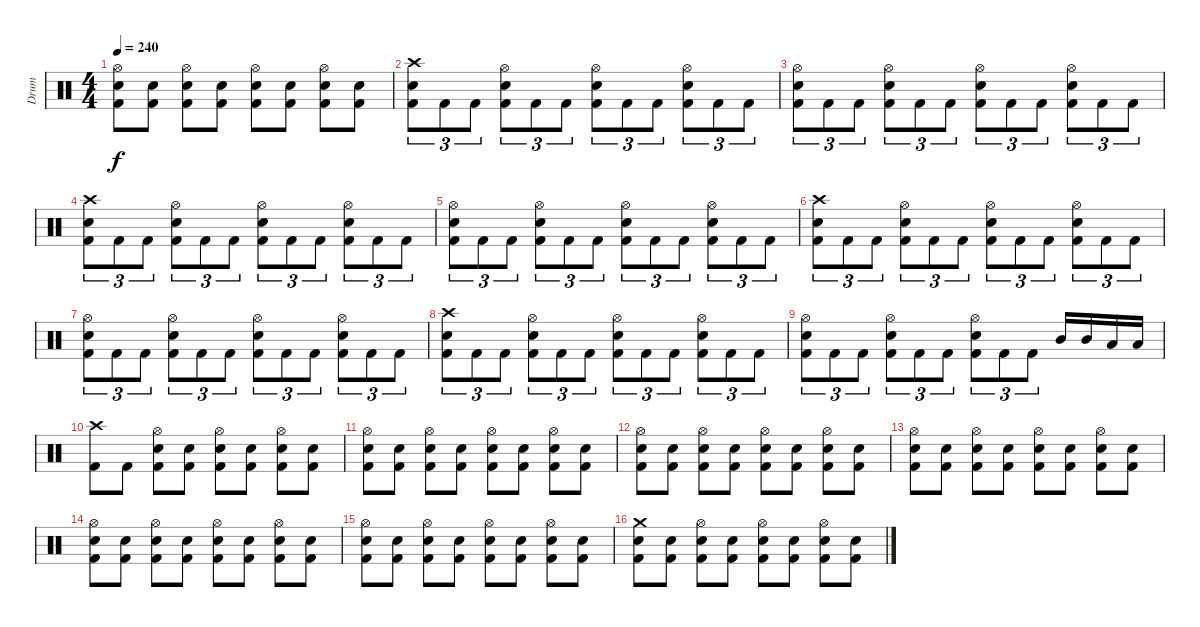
\track ("Drum" "Drum") {instrument percussion}
\staff {score}
\articulation defaults
\ts (4 4)
\tempo 240
\clef neutral
\ks c
("Hi-Hat (open)" "Electric Snare (hit)" "Kick (hit) 2").8{dy f} ("Electric Snare (hit)" "Kick (hit) 2").8 ("Hi-Hat (open)" "Electric Snare (hit)" "Kick (hit) 2").8 ("Electric Snare (hit)" "Kick (hit) 2").8 ("Hi-Hat (open)" "Electric Snare (hit)" "Kick (hit) 2").8 ("Electric Snare (hit)" "Kick (hit) 2").8 ("Hi-Hat (open)" "Electric Snare (hit)" "Kick (hit) 2").8 ("Electric Snare (hit)" "Kick (hit) 2").8 |
("Crash high (hit)" "Electric Snare (hit)" "Kick (hit) 2").8{tu (3 2)} "Kick (hit) 2".8{tu (3 2)} "Kick (hit) 2".8{tu (3 2)} ("Hi-Hat (open)" "Electric Snare (hit)" "Kick (hit) 2").8{tu (3 2)} "Kick (hit) 2".8{tu (3 2)} "Kick (hit) 2".8{tu (3 2)} ("Hi-Hat (open)" "Electric Snare (hit)" "Kick (hit) 2").8{tu (3 2)} "Kick (hit) 2".8{tu (3 2)} "Kick (hit) 2".8{tu (3 2)} ("Hi-Hat (open)" "Electric Snare (hit)" "Kick (hit) 2").8{tu (3 2)} "Kick (hit) 2".8{tu (3 2)} "Kick (hit) 2".8{tu (3 2)} |
("Hi-Hat (open)" "Electric Snare (hit)" "Kick (hit) 2").8{tu (3 2)} "Kick (hit) 2".8{tu (3 2)} "Kick (hit) 2".8{tu (3 2)} ("Hi-Hat (open)" "Electric Snare (hit)" "Kick (hit) 2").8{tu (3 2)} "Kick (hit) 2".8{tu (3 2)} "Kick (hit) 2".8{tu (3 2)} ("Hi-Hat (open)" "Electric Snare (hit)" "Kick (hit) 2").8{tu (3 2)} "Kick (hit) 2".8{tu (3 2)} "Kick (hit) 2".8{tu (3 2)} ("Hi-Hat (open)" "Electric Snare (hit)" "Kick (hit) 2").8{tu (3 2)} "Kick (hit) 2".8{tu (3 2)} "Kick (hit) 2".8{tu (3 2)} |
("Crash high (hit)" "Electric Snare (hit)" "Kick (hit) 2").8{tu (3 2)} "Kick (hit) 2".8{tu (3 2)} "Kick (hit) 2".8{tu (3 2)} ("Hi-Hat (open)" "Electric Snare (hit)" "Kick (hit) 2").8{tu (3 2)} "Kick (hit) 2".8{tu (3 2)} "Kick (hit) 2".8{tu (3 2)} ("Hi-Hat (open)" "Electric Snare (hit)" "Kick (hit) 2").8{tu (3 2)} "Kick (hit) 2".8{tu (3 2)} "Kick (hit) 2".8{tu (3 2)} ("Hi-Hat (open)" "Electric Snare (hit)" "Kick (hit) 2").8{tu (3 2)} "Kick (hit) 2".8{tu (3 2)} "Kick (hit) 2".8{tu (3 2)} |
("Hi-Hat (open)" "Electric Snare (hit)" "Kick (hit) 2").8{tu (3 2)} "Kick (hit) 2".8{tu (3 2)} "Kick (hit) 2".8{tu (3 2)} ("Hi-Hat (open)" "Electric Snare (hit)" "Kick (hit) 2").8{tu (3 2)} "Kick (hit) 2".8{tu (3 2)} "Kick (hit) 2".8{tu (3 2)} ("Hi-Hat (open)" "Electric Snare (hit)" "Kick (hit) 2").8{tu (3 2)} "Kick (hit) 2".8{tu (3 2)} "Kick (hit) 2".8{tu (3 2)} ("Hi-Hat (open)" "Electric Snare (hit)" "Kick (hit) 2").8{tu (3 2)} "Kick (hit) 2".8{tu (3 2)} "Kick (hit) 2".8{tu (3 2)} |
("Crash high (hit)" "Electric Snare (hit)" "Kick (hit) 2").8{tu (3 2)} "Kick (hit) 2".8{tu (3 2)} "Kick (hit) 2".8{tu (3 2)} ("Hi-Hat (open)" "Electric Snare (hit)" "Kick (hit) 2").8{tu (3 2)} "Kick (hit) 2".8{tu (3 2)} "Kick (hit) 2".8{tu (3 2)} ("Hi-Hat (open)" "Electric Snare (hit)" "Kick (hit) 2").8{tu (3 2)} "Kick (hit) 2".8{tu (3 2)} "Kick (hit) 2".8{tu (3 2)} ("Hi-Hat (open)" "Electric Snare (hit)" "Kick (hit) 2").8{tu (3 2)} "Kick (hit) 2".8{tu (3 2)} "Kick (hit) 2".8{tu (3 2)} |
("Hi-Hat (open)" "Electric Snare (hit)" "Kick (hit) 2").8{tu (3 2)} "Kick (hit) 2".8{tu (3 2)} "Kick (hit) 2".8{tu (3 2)} ("Hi-Hat (open)" "Electric Snare (hit)" "Kick (hit) 2").8{tu (3 2)} "Kick (hit) 2".8{tu (3 2)} "Kick (hit) 2".8{tu (3 2)} ("Hi-Hat (open)" "Electric Snare (hit)" "Kick (hit) 2").8{tu (3 2)} "Kick (hit) 2".8{tu (3 2)} "Kick (hit) 2".8{tu (3 2)} ("Hi-Hat (open)" "Electric Snare (hit)" "Kick (hit) 2").8{tu (3 2)} "Kick (hit) 2".8{tu (3 2)} "Kick (hit) 2".8{tu (3 2)} |
("Crash high (hit)" "Electric Snare (hit)" "Kick (hit) 2").8{tu (3 2)} "Kick (hit) 2".8{tu (3 2)} "Kick (hit) 2".8{tu (3 2)} ("Hi-Hat (open)" "Electric Snare (hit)" "Kick (hit) 2").8{tu (3 2)} "Kick (hit) 2".8{tu (3 2)} "Kick (hit) 2".8{tu (3 2)} ("Hi-Hat (open)" "Electric Snare (hit)" "Kick (hit) 2").8{tu (3 2)} "Kick (hit) 2".8{tu (3 2)} "Kick (hit) 2".8{tu (3 2)} ("Hi-Hat (open)" "Electric Snare (hit)" "Kick (hit) 2").8{tu (3 2)} "Kick (hit) 2".8{tu (3 2)} "Kick (hit) 2".8{tu (3 2)} |
("Hi-Hat (open)" "Electric Snare (hit)" "Kick (hit) 2").8{tu (3 2)} "Kick (hit) 2".8{tu (3 2)} "Kick (hit) 2".8{tu (3 2)} ("Hi-Hat (open)" "Electric Snare (hit)" "Kick (hit) 2").8{tu (3 2)} "Kick (hit) 2".8{tu (3 2)} "Kick (hit) 2".8{tu (3 2)} ("Hi-Hat (open)" "Electric Snare (hit)" "Kick (hit) 2").8{tu (3 2)} "Kick (hit) 2".8{tu (3 2)} "Kick (hit) 2".8{tu (3 2)} "Mid Tom (hit)".16 "Mid Tom (hit)".16 "Low Tom (hit)".16 "Low Tom (hit)".16 |
("Crash high (hit)" "Kick (hit) 2").8 "Kick (hit) 2".8 ("Hi-Hat (open)" "Electric Snare (hit)" "Kick (hit) 2").8 ("Electric Snare (hit)" "Kick (hit) 2").8 ("Hi-Hat (open)" "Electric Snare (hit)" "Kick (hit) 2").8 ("Electric Snare (hit)" "Kick (hit) 2").8 ("Hi-Hat (open)" "Electric Snare (hit)" "Kick (hit) 2").8 ("Electric Snare (hit)" "Kick (hit) 2").8 |
("Hi-Hat (open)" "Electric Snare (hit)" "Kick (hit) 2").8 ("Electric Snare (hit)" "Kick (hit) 2").8 ("Hi-Hat (open)" "Electric Snare (hit)" "Kick (hit) 2").8 ("Electric Snare (hit)" "Kick (hit) 2").8 ("Hi-Hat (open)" "Electric Snare (hit)" "Kick (hit) 2").8 ("Electric Snare (hit)" "Kick (hit) 2").8 ("Hi-Hat (open)" "Electric Snare (hit)" "Kick (hit) 2").8 ("Electric Snare (hit)" "Kick (hit) 2").8 |
("Hi-Hat (open)" "Electric Snare (hit)" "Kick (hit) 2").8 ("Electric Snare (hit)" "Kick (hit) 2").8 ("Hi-Hat (open)" "Electric Snare (hit)" "Kick (hit) 2").8 ("Electric Snare (hit)" "Kick (hit) 2").8 ("Hi-Hat (open)" "Electric Snare (hit)" "Kick (hit) 2").8 ("Electric Snare (hit)" "Kick (hit) 2").8 ("Hi-Hat (open)" "Electric Snare (hit)" "Kick (hit) 2").8 ("Electric Snare (hit)" "Kick (hit) 2").8 |
("Hi-Hat (open)" "Electric Snare (hit)" "Kick (hit) 2").8 ("Electric Snare (hit)" "Kick (hit) 2").8 ("Hi-Hat (open)" "Electric Snare (hit)" "Kick (hit) 2").8 ("Electric Snare (hit)" "Kick (hit) 2").8 ("Hi-Hat (open)" "Electric Snare (hit)" "Kick (hit) 2").8 ("Electric Snare (hit)" "Kick (hit) 2").8 ("Hi-Hat (open)" "Electric Snare (hit)" "Kick (hit) 2").8 ("Electric Snare (hit)" "Kick (hit) 2").8 |
("Hi-Hat (open)" "Electric Snare (hit)" "Kick (hit) 2").8 ("Electric Snare (hit)" "Kick (hit) 2").8 ("Hi-Hat (open)" "Electric Snare (hit)" "Kick (hit) 2").8 ("Electric Snare (hit)" "Kick (hit) 2").8 ("Hi-Hat (open)" "Electric Snare (hit)" "Kick (hit) 2").8 ("Electric Snare (hit)" "Kick (hit) 2").8 ("Hi-Hat (open)" "Electric Snare (hit)" "Kick (hit) 2").8 ("Electric Snare (hit)" "Kick (hit) 2").8 |
("Hi-Hat (open)" "Electric Snare (hit)" "Kick (hit) 2").8 ("Electric Snare (hit)" "Kick (hit) 2").8 ("Hi-Hat (open)" "Electric Snare (hit)" "Kick (hit) 2").8 ("Electric Snare (hit)" "Kick (hit) 2").8 ("Hi-Hat (open)" "Electric Snare (hit)" "Kick (hit) 2").8 ("Electric Snare (hit)" "Kick (hit) 2").8 ("Hi-Hat (open)" "Electric Snare (hit)" "Kick (hit) 2").8 ("Electric Snare (hit)" "Kick (hit) 2").8 |
("Crash medium (hit)" "Electric Snare (hit)" "Kick (hit) 2").8 ("Electric Snare (hit)" "Kick (hit) 2").8 ("Hi-Hat (open)" "Electric Snare (hit)" "Kick (hit) 2").8 ("Electric Snare (hit)" "Kick (hit) 2").8 ("Hi-Hat (open)" "Electric Snare (hit)" "Kick (hit) 2").8 ("Electric Snare (hit)" "Kick (hit) 2").8 ("Hi-Hat (open)" "Electric Snare (hit)" "Kick (hit) 2").8 ("Electric Snare (hit)" "Kick (hit) 2").8
